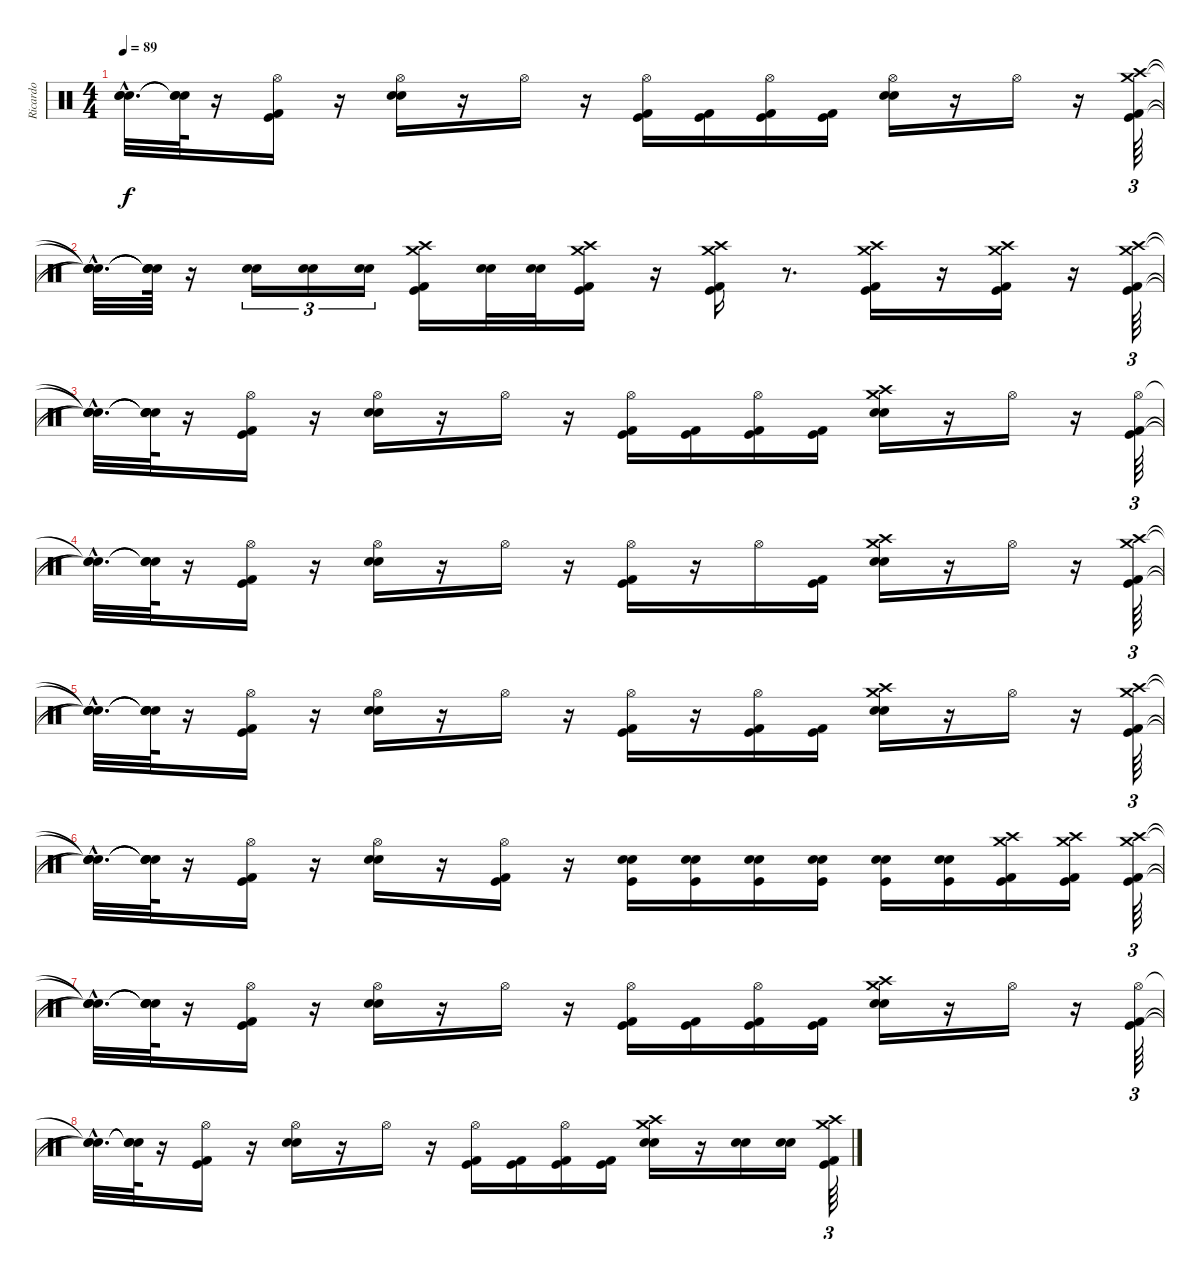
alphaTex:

\track ("Ricardo" "Ricardo") {instrument percussion}
\staff {score}
\articulation defaults
\ts (4 4)
\tempo 89
\clef neutral
\ks c
("Snare (hit)"{hac t} "Snare (hit)"{hac t} "Snare (hit)"{hac t}).32{d dy f} ("Snare (hit)"{t} "Snare (hit)"{t} "Snare (hit)"{t}).64 r.16 ("Hi-Hat (open)" "Kick (hit) 2" "Kick (hit)").16 r.16 ("Hi-Hat (open)" "Electric Snare (hit)" "Snare (hit) 2").16 r.16 "Hi-Hat (open)".16 r.16 ("Hi-Hat (open)" "Kick (hit) 2" "Kick (hit)").16 ("Kick (hit) 2" "Kick (hit)").16 ("Hi-Hat (open)" "Kick (hit) 2" "Kick (hit)").16 ("Kick (hit) 2" "Kick (hit)").16 ("Hi-Hat (open)" "Electric Snare (hit)" "Snare (hit) 2").16 r.16 "Hi-Hat (open)".16 r.16 ("Crash high (hit)" "Crash medium (hit)" "Kick (hit) 2" "Kick (hit)").64{tu (3 2) volume 16} |
("Snare (hit)"{hac t} "Snare (hit)"{hac t} "Snare (hit)"{hac t} "Snare (hit)"{hac t}).32{d} ("Snare (hit)"{t} "Snare (hit)"{t} "Snare (hit)"{t} "Snare (hit)"{t}).64 r.16 ("Electric Snare (hit)" "Snare (hit) 2").16{tu (3 2)} ("Electric Snare (hit)" "Snare (hit) 2").16{tu (3 2)} ("Electric Snare (hit)" "Snare (hit) 2").16{tu (3 2)} ("Crash high (hit)" "Crash medium (hit)" "Kick (hit) 2" "Kick (hit)").16 ("Electric Snare (hit)" "Snare (hit) 2").32 ("Electric Snare (hit)" "Snare (hit) 2").32 ("Kick (hit) 2" "Kick (hit)" "Crash high (hit)" "Crash medium (hit)").16 r.16 ("Crash medium (hit)" "Crash high (hit)" "Kick (hit) 2" "Kick (hit)").16 r.8{d} ("Crash medium (hit)" "Crash high (hit)" "Kick (hit) 2" "Kick (hit)").16 r.16 ("Crash medium (hit)" "Crash high (hit)" "Kick (hit) 2" "Kick (hit)").16 r.16 ("Crash medium (hit)" "Crash high (hit)" "Kick (hit) 2" "Kick (hit)").64{tu (3 2)} |
("Snare (hit)"{hac t} "Snare (hit)"{hac t} "Snare (hit)"{hac t} "Snare (hit)"{hac t}).32{d} ("Snare (hit)"{t} "Snare (hit)"{t} "Snare (hit)"{t} "Snare (hit)"{t}).64 r.16 ("Hi-Hat (open)" "Kick (hit) 2" "Kick (hit)").16 r.16 ("Hi-Hat (open)" "Electric Snare (hit)" "Snare (hit) 2").16 r.16 "Hi-Hat (open)".16 r.16 ("Hi-Hat (open)" "Kick (hit) 2" "Kick (hit)").16 ("Kick (hit) 2" "Kick (hit)").16 ("Hi-Hat (open)" "Kick (hit) 2" "Kick (hit)").16 ("Kick (hit) 2" "Kick (hit)").16 ("Crash medium (hit)" "Crash high (hit)" "Electric Snare (hit)" "Snare (hit) 2").16 r.16 "Hi-Hat (open)".16 r.16 ("Hi-Hat (open)" "Kick (hit) 2" "Kick (hit)").64{tu (3 2)} |
("Snare (hit)"{hac t} "Snare (hit)"{hac t} "Snare (hit)"{hac t}).32{d} ("Snare (hit)"{t} "Snare (hit)"{t} "Snare (hit)"{t}).64 r.16 ("Hi-Hat (open)" "Kick (hit) 2" "Kick (hit)").16 r.16 ("Hi-Hat (open)" "Electric Snare (hit)" "Snare (hit) 2").16 r.16 "Hi-Hat (open)".16 r.16 ("Hi-Hat (open)" "Kick (hit) 2" "Kick (hit)").16 r.16 "Hi-Hat (open)".16 ("Kick (hit) 2" "Kick (hit)").16 ("Crash medium (hit)" "Crash high (hit)" "Electric Snare (hit)" "Snare (hit) 2").16 r.16 "Hi-Hat (open)".16 r.16 ("Crash medium (hit)" "Crash high (hit)" "Kick (hit) 2" "Kick (hit)").64{tu (3 2)} |
("Snare (hit)"{hac t} "Snare (hit)"{hac t} "Snare (hit)"{hac t} "Snare (hit)"{hac t}).32{d} ("Snare (hit)"{t} "Snare (hit)"{t} "Snare (hit)"{t} "Snare (hit)"{t}).64 r.16 ("Hi-Hat (open)" "Kick (hit) 2" "Kick (hit)").16 r.16 ("Hi-Hat (open)" "Electric Snare (hit)" "Snare (hit) 2").16 r.16 "Hi-Hat (open)".16 r.16 ("Hi-Hat (open)" "Kick (hit) 2" "Kick (hit)").16 r.16 ("Hi-Hat (open)" "Kick (hit) 2" "Kick (hit)").16 ("Kick (hit) 2" "Kick (hit)").16 ("Crash medium (hit)" "Crash high (hit)" "Electric Snare (hit)" "Snare (hit) 2").16 r.16 "Hi-Hat (open)".16 r.16 ("Crash medium (hit)" "Crash high (hit)" "Kick (hit) 2" "Kick (hit)").64{tu (3 2)} |
("Snare (hit)"{hac t} "Snare (hit)"{hac t} "Snare (hit)"{hac t} "Snare (hit)"{hac t}).32{d} ("Snare (hit)"{t} "Snare (hit)"{t} "Snare (hit)"{t} "Snare (hit)"{t}).64 r.16 ("Hi-Hat (open)" "Kick (hit) 2" "Kick (hit)").16 r.16 ("Hi-Hat (open)" "Electric Snare (hit)" "Snare (hit) 2").16 r.16 ("Kick (hit) 2" "Kick (hit)" "Hi-Hat (open)").16 r.16 ("Electric Snare (hit)" "Snare (hit) 2" "Kick (hit)").16 ("Electric Snare (hit)" "Snare (hit) 2" "Kick (hit)").16 ("Electric Snare (hit)" "Snare (hit) 2" "Kick (hit)").16 ("Electric Snare (hit)" "Snare (hit) 2" "Kick (hit)").16 ("Kick (hit)" "Electric Snare (hit)" "Snare (hit) 2").16 ("Kick (hit)" "Electric Snare (hit)" "Snare (hit) 2").16 ("Crash high (hit)" "Crash medium (hit)" "Kick (hit) 2" "Kick (hit)").16 ("Kick (hit) 2" "Kick (hit)" "Crash high (hit)" "Crash medium (hit)").16 ("Crash medium (hit)" "Crash high (hit)" "Kick (hit) 2" "Kick (hit)").64{tu (3 2)} |
("Snare (hit)"{hac t} "Snare (hit)"{hac t} "Snare (hit)"{hac t} "Snare (hit)"{hac t}).32{d} ("Snare (hit)"{t} "Snare (hit)"{t} "Snare (hit)"{t} "Snare (hit)"{t}).64 r.16 ("Hi-Hat (open)" "Kick (hit) 2" "Kick (hit)").16 r.16 ("Hi-Hat (open)" "Electric Snare (hit)" "Snare (hit) 2").16 r.16 "Hi-Hat (open)".16 r.16 ("Hi-Hat (open)" "Kick (hit) 2" "Kick (hit)").16 ("Kick (hit) 2" "Kick (hit)").16 ("Hi-Hat (open)" "Kick (hit) 2" "Kick (hit)").16 ("Kick (hit) 2" "Kick (hit)").16 ("Crash medium (hit)" "Crash high (hit)" "Electric Snare (hit)" "Snare (hit) 2").16 r.16 "Hi-Hat (open)".16 r.16 ("Hi-Hat (open)" "Kick (hit) 2" "Kick (hit)").64{tu (3 2)} |
("Snare (hit)"{hac t} "Snare (hit)"{hac t} "Snare (hit)"{hac t}).32{d} ("Snare (hit)"{t} "Snare (hit)"{t} "Snare (hit)"{t}).64 r.16 ("Hi-Hat (open)" "Kick (hit) 2" "Kick (hit)").16 r.16 ("Hi-Hat (open)" "Electric Snare (hit)" "Snare (hit) 2").16 r.16 "Hi-Hat (open)".16 r.16 ("Hi-Hat (open)" "Kick (hit) 2" "Kick (hit)").16 ("Kick (hit) 2" "Kick (hit)").16 ("Hi-Hat (open)" "Kick (hit) 2" "Kick (hit)").16 ("Kick (hit) 2" "Kick (hit)").16 ("Crash medium (hit)" "Crash high (hit)" "Electric Snare (hit)" "Snare (hit) 2").16 r.16 ("Electric Snare (hit)" "Snare (hit) 2").16 ("Electric Snare (hit)" "Snare (hit) 2").16 ("Crash medium (hit)" "Crash high (hit)" "Kick (hit) 2" "Kick (hit)").64{tu (3 2)}
